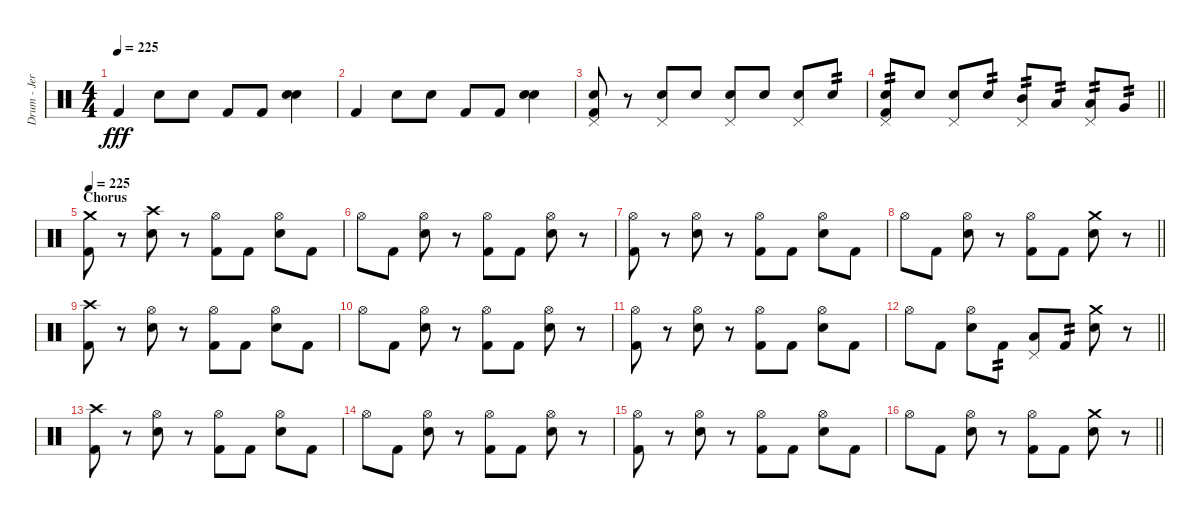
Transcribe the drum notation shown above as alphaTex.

\track ("Drum - Jerinx" "Drum - Jer") {instrument percussion}
\staff {score}
\articulation defaults
\ts (4 4)
\tempo 225
\clef neutral
\ks c "Kick (hit) 2".4{dy fff} "Snare (hit) 2".8 "Snare (hit) 2".8 "Kick (hit) 2".8 "Kick (hit) 2".8
("Snare (hit) 2" "Snare (hit) 2").4{bu 240} |
"Kick (hit) 2".4 "Snare (hit) 2".8 "Snare (hit) 2".8 "Kick (hit) 2".8 "Kick (hit) 2".8 ("Snare (hit) 2" "Snare (hit) 2").4{bu 240} |
("Pedal Hi-Hat (hit)" "Snare (hit) 2" "Kick (hit) 2").8 r.8 ("Pedal Hi-Hat (hit)" "Snare (hit) 2").8 "Snare (hit) 2".8 ("Pedal Hi-Hat (hit)" "Snare (hit) 2").8 "Snare (hit) 2".8 ("Pedal Hi-Hat (hit)" "Snare (hit) 2").8 "Snare (hit) 2".8{tp 2} |
\barLineRight lightlight
("Pedal Hi-Hat (hit)" "Snare (hit) 2" "Kick (hit) 2").8{tp 2} "Snare (hit) 2".8 ("Pedal Hi-Hat (hit)" "Snare (hit) 2").8 "Snare (hit) 2".8{tp 2} ("Pedal Hi-Hat (hit)" "Mid Tom (hit)").8{tp 2} "Low Tom (hit)".8{tp 2} ("Pedal Hi-Hat (hit)" "Low Tom (hit)").8{tp 2} "Very Low Tom (hit)".8{tp 2} |
\section ("" "Chorus")
\tempo 225
("Kick (hit) 2" "Crash medium (hit)").8 r.8 ("Snare (hit) 2" "Crash high (hit)").8 r.8 ("Hi-Hat (open)" "Kick (hit) 2").8 "Kick (hit) 2".8 ("Hi-Hat (open)" "Snare (hit) 2").8 "Kick (hit) 2".8 |
"Hi-Hat (open)".8 "Kick (hit) 2".8 ("Hi-Hat (open)" "Snare (hit) 2").8 r.8 ("Hi-Hat (open)" "Kick (hit) 2").8 "Kick (hit) 2".8 ("Hi-Hat (open)" "Snare (hit) 2").8 r.8 |
("Hi-Hat (open)" "Kick (hit) 2").8 r.8 ("Hi-Hat (open)" "Snare (hit) 2").8 r.8 ("Hi-Hat (open)" "Kick (hit) 2").8 "Kick (hit) 2".8 ("Hi-Hat (open)" "Snare (hit) 2").8 "Kick (hit) 2".8 |
\barLineRight lightlight "Hi-Hat (open)".8 "Kick (hit) 2".8
("Hi-Hat (open)" "Snare (hit) 2").8 r.8 ("Hi-Hat (open)" "Kick (hit) 2").8 "Kick (hit) 2".8 ("Snare (hit) 2" "Crash medium (hit)").8 r.8 |
("Kick (hit) 2" "Crash high (hit)").8 r.8 ("Hi-Hat (open)" "Snare (hit) 2").8 r.8 ("Hi-Hat (open)" "Kick (hit) 2").8 "Kick (hit) 2".8 ("Hi-Hat (open)" "Snare (hit) 2").8 "Kick (hit) 2".8 |
"Hi-Hat (open)".8 "Kick (hit) 2".8 ("Hi-Hat (open)" "Snare (hit) 2").8 r.8 ("Hi-Hat (open)" "Kick (hit) 2").8 "Kick (hit) 2".8 ("Hi-Hat (open)" "Snare (hit) 2").8 r.8 |
("Hi-Hat (open)" "Kick (hit) 2").8 r.8 ("Hi-Hat (open)" "Snare (hit) 2").8 r.8 ("Hi-Hat (open)" "Kick (hit) 2").8 "Kick (hit) 2".8 ("Hi-Hat (open)" "Snare (hit) 2").8 "Kick (hit) 2".8 |
\barLineRight lightlight "Hi-Hat (open)".8 "Kick (hit) 2".8
("Hi-Hat (open)" "Snare (hit) 2").8 "Kick (hit) 2".8{tp 2} ("Pedal Hi-Hat (hit)" "Low Tom (hit)").8 "Kick (hit) 2".8{tp 2} ("Snare (hit) 2" "Crash medium (hit)").8 r.8 |
("Kick (hit) 2" "Crash high (hit)").8 r.8 ("Hi-Hat (open)" "Snare (hit) 2").8 r.8 ("Hi-Hat (open)" "Kick (hit) 2").8 "Kick (hit) 2".8 ("Hi-Hat (open)" "Snare (hit) 2").8 "Kick (hit) 2".8 |
"Hi-Hat (open)".8 "Kick (hit) 2".8 ("Hi-Hat (open)" "Snare (hit) 2").8 r.8 ("Hi-Hat (open)" "Kick (hit) 2").8 "Kick (hit) 2".8 ("Hi-Hat (open)" "Snare (hit) 2").8 r.8 |
("Hi-Hat (open)" "Kick (hit) 2").8 r.8 ("Hi-Hat (open)" "Snare (hit) 2").8 r.8 ("Hi-Hat (open)" "Kick (hit) 2").8 "Kick (hit) 2".8 ("Hi-Hat (open)" "Snare (hit) 2").8 "Kick (hit) 2".8 |
\barLineRight lightlight "Hi-Hat (open)".8 "Kick (hit) 2".8
("Hi-Hat (open)" "Snare (hit) 2").8 r.8 ("Hi-Hat (open)" "Kick (hit) 2").8 "Kick (hit) 2".8 ("Snare (hit) 2" "Crash medium (hit)").8 r.8
